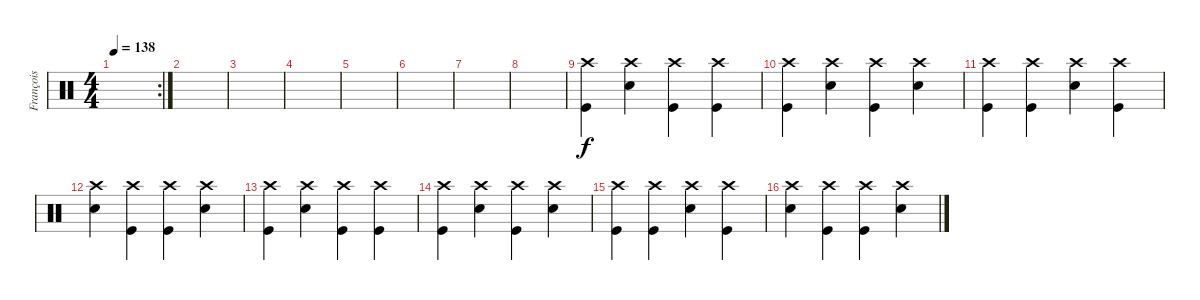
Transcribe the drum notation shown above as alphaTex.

\track ("François" "François") {instrument percussion}
\staff {score}
\articulation defaults
\rc 2
\ts (4 4)
\tempo 138
\clef neutral
\ks c
|
|
|
|
|
|
|
|
("Crash high (hit)" "Kick (hit)").4 ("Crash high (hit)" "Electric Snare (hit)").4 ("Crash high (hit)" "Kick (hit)").4 ("Crash high (hit)" "Kick (hit)").4 |
("Crash high (hit)" "Kick (hit)").4 ("Crash high (hit)" "Electric Snare (hit)").4 ("Crash high (hit)" "Kick (hit)").4 ("Crash high (hit)" "Electric Snare (hit)").4 |
("Crash high (hit)" "Kick (hit)").4 ("Crash high (hit)" "Kick (hit)").4 ("Crash high (hit)" "Electric Snare (hit)").4 ("Crash high (hit)" "Kick (hit)").4 |
("Crash high (hit)" "Electric Snare (hit)").4 ("Crash high (hit)" "Kick (hit)").4 ("Crash high (hit)" "Kick (hit)").4 ("Crash high (hit)" "Electric Snare (hit)").4 |
("Crash high (hit)" "Kick (hit)").4 ("Crash high (hit)" "Electric Snare (hit)").4 ("Crash high (hit)" "Kick (hit)").4 ("Crash high (hit)" "Kick (hit)").4 |
("Crash high (hit)" "Kick (hit)").4 ("Crash high (hit)" "Electric Snare (hit)").4 ("Crash high (hit)" "Kick (hit)").4 ("Crash high (hit)" "Electric Snare (hit)").4 |
("Crash high (hit)" "Kick (hit)").4 ("Crash high (hit)" "Kick (hit)").4 ("Crash high (hit)" "Electric Snare (hit)").4 ("Crash high (hit)" "Kick (hit)").4 |
("Crash high (hit)" "Electric Snare (hit)").4 ("Crash high (hit)" "Kick (hit)").4 ("Crash high (hit)" "Kick (hit)").4 ("Crash high (hit)" "Electric Snare (hit)").4
